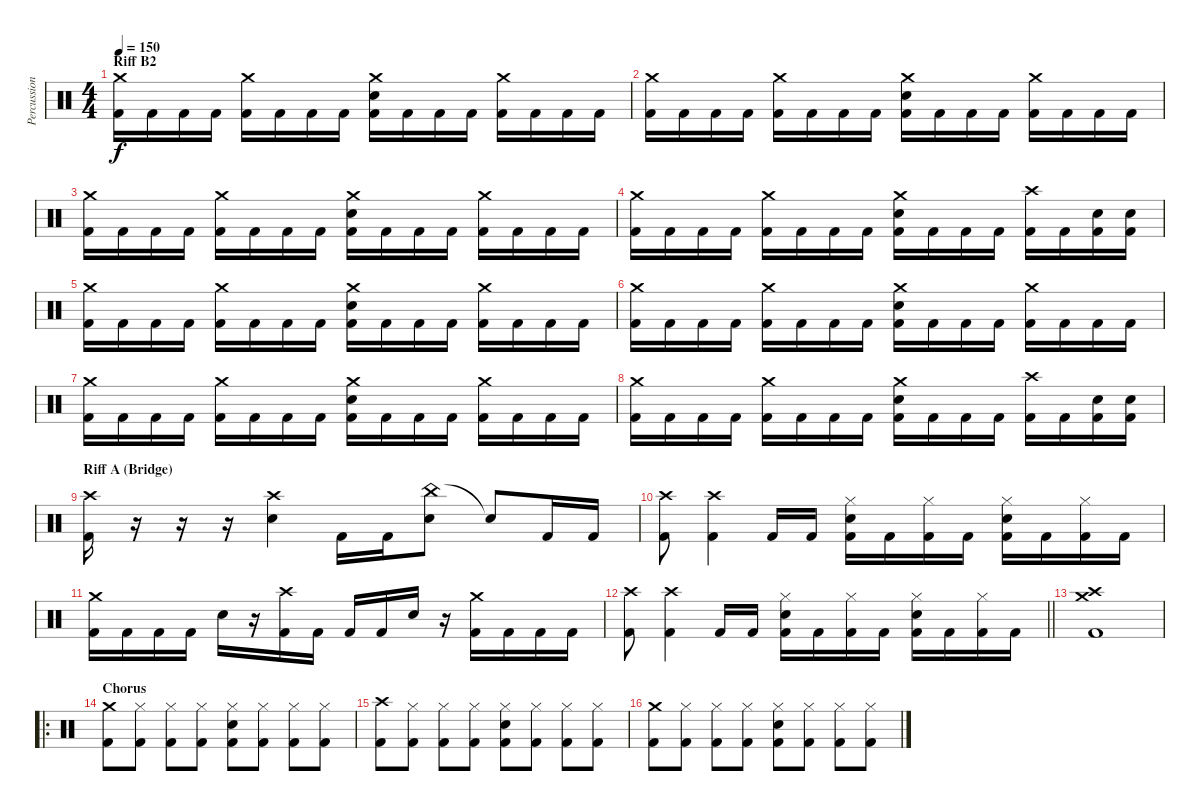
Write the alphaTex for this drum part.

\track ("Percussions" "Percussion") {instrument percussion}
\staff {score}
\articulation defaults
\ts (4 4)
\section ("" "Riff B2")
\tempo 150
\clef neutral
\ks c
("Crash medium (hit)" "Kick (hit) 2").16{dy f} "Kick (hit) 2".16 "Kick (hit) 2".16 "Kick (hit) 2".16 ("Crash medium (hit)" "Kick (hit) 2").16 "Kick (hit) 2".16 "Kick (hit) 2".16 "Kick (hit) 2".16 ("Crash medium (hit)" "Snare (hit) 2" "Kick (hit) 2").16 "Kick (hit) 2".16 "Kick (hit) 2".16 "Kick (hit) 2".16 ("Crash medium (hit)" "Kick (hit) 2").16 "Kick (hit) 2".16 "Kick (hit) 2".16 "Kick (hit) 2".16 |
("Crash medium (hit)" "Kick (hit) 2").16 "Kick (hit) 2".16 "Kick (hit) 2".16 "Kick (hit) 2".16 ("Crash medium (hit)" "Kick (hit) 2").16 "Kick (hit) 2".16 "Kick (hit) 2".16 "Kick (hit) 2".16 ("Crash medium (hit)" "Snare (hit) 2" "Kick (hit) 2").16 "Kick (hit) 2".16 "Kick (hit) 2".16 "Kick (hit) 2".16 ("Crash medium (hit)" "Kick (hit) 2").16 "Kick (hit) 2".16 "Kick (hit) 2".16 "Kick (hit) 2".16 |
("Crash medium (hit)" "Kick (hit) 2").16 "Kick (hit) 2".16 "Kick (hit) 2".16 "Kick (hit) 2".16 ("Crash medium (hit)" "Kick (hit) 2").16 "Kick (hit) 2".16 "Kick (hit) 2".16 "Kick (hit) 2".16 ("Crash medium (hit)" "Snare (hit) 2" "Kick (hit) 2").16 "Kick (hit) 2".16 "Kick (hit) 2".16 "Kick (hit) 2".16 ("Crash medium (hit)" "Kick (hit) 2").16 "Kick (hit) 2".16 "Kick (hit) 2".16 "Kick (hit) 2".16 |
("Crash medium (hit)" "Kick (hit) 2").16 "Kick (hit) 2".16 "Kick (hit) 2".16 "Kick (hit) 2".16 ("Crash medium (hit)" "Kick (hit) 2").16 "Kick (hit) 2".16 "Kick (hit) 2".16 "Kick (hit) 2".16 ("Crash medium (hit)" "Snare (hit) 2" "Kick (hit) 2").16 "Kick (hit) 2".16 "Kick (hit) 2".16 "Kick (hit) 2".16 ("Crash high (hit)" "Kick (hit) 2").16 "Kick (hit) 2".16 ("Snare (hit) 2" "Kick (hit) 2").16 ("Snare (hit) 2" "Kick (hit) 2").16 |
("Crash medium (hit)" "Kick (hit) 2").16 "Kick (hit) 2".16 "Kick (hit) 2".16 "Kick (hit) 2".16 ("Crash medium (hit)" "Kick (hit) 2").16 "Kick (hit) 2".16 "Kick (hit) 2".16 "Kick (hit) 2".16 ("Crash medium (hit)" "Snare (hit) 2" "Kick (hit) 2").16 "Kick (hit) 2".16 "Kick (hit) 2".16 "Kick (hit) 2".16 ("Crash medium (hit)" "Kick (hit) 2").16 "Kick (hit) 2".16 "Kick (hit) 2".16 "Kick (hit) 2".16 |
("Crash medium (hit)" "Kick (hit) 2").16 "Kick (hit) 2".16 "Kick (hit) 2".16 "Kick (hit) 2".16 ("Crash medium (hit)" "Kick (hit) 2").16 "Kick (hit) 2".16 "Kick (hit) 2".16 "Kick (hit) 2".16 ("Crash medium (hit)" "Snare (hit) 2" "Kick (hit) 2").16 "Kick (hit) 2".16 "Kick (hit) 2".16 "Kick (hit) 2".16 ("Crash medium (hit)" "Kick (hit) 2").16 "Kick (hit) 2".16 "Kick (hit) 2".16 "Kick (hit) 2".16 |
("Crash medium (hit)" "Kick (hit) 2").16 "Kick (hit) 2".16 "Kick (hit) 2".16 "Kick (hit) 2".16 ("Crash medium (hit)" "Kick (hit) 2").16 "Kick (hit) 2".16 "Kick (hit) 2".16 "Kick (hit) 2".16 ("Crash medium (hit)" "Snare (hit) 2" "Kick (hit) 2").16 "Kick (hit) 2".16 "Kick (hit) 2".16 "Kick (hit) 2".16 ("Crash medium (hit)" "Kick (hit) 2").16 "Kick (hit) 2".16 "Kick (hit) 2".16 "Kick (hit) 2".16 |
("Crash medium (hit)" "Kick (hit) 2").16 "Kick (hit) 2".16 "Kick (hit) 2".16 "Kick (hit) 2".16 ("Crash medium (hit)" "Kick (hit) 2").16 "Kick (hit) 2".16 "Kick (hit) 2".16 "Kick (hit) 2".16 ("Crash medium (hit)" "Snare (hit) 2" "Kick (hit) 2").16 "Kick (hit) 2".16 "Kick (hit) 2".16 "Kick (hit) 2".16 ("Crash high (hit)" "Kick (hit) 2").16 "Kick (hit) 2".16 ("Snare (hit) 2" "Kick (hit) 2").16 ("Snare (hit) 2" "Kick (hit) 2").16 |
\section ("" "Riff A (Bridge)")
("Crash high (hit)" "Kick (hit) 2").16 r.16 r.16 r.16 ("Crash high (hit)" "Snare (hit) 2").4 "Kick (hit) 2".16 "Kick (hit) 2".16 ("China (hit)" "Snare (hit) 2").8 "Snare (hit)"{t}.8 "Kick (hit) 2".16 "Kick (hit) 2".16 |
("Crash high (hit)" "Kick (hit) 2").8 ("Crash high (hit)" "Kick (hit) 2").4 "Kick (hit) 2".16 "Kick (hit) 2".16 ("Hi-Hat (closed)" "Snare (hit) 2" "Kick (hit) 2").16 "Kick (hit) 2".16 ("Hi-Hat (closed)" "Kick (hit) 2").16 "Kick (hit) 2".16 ("Hi-Hat (closed)" "Snare (hit) 2" "Kick (hit) 2").16 "Kick (hit) 2".16 ("Hi-Hat (closed)" "Kick (hit) 2").16 "Kick (hit) 2".16 |
("Crash medium (hit)" "Kick (hit) 2").16 "Kick (hit) 2".16 "Kick (hit) 2".16 "Kick (hit) 2".16 "Snare (hit) 2".16 r.16 ("Crash high (hit)" "Kick (hit) 2").16 "Kick (hit) 2".16 "Kick (hit) 2".16 "Kick (hit) 2".16 "Snare (hit) 2".16 r.16 ("Crash medium (hit)" "Kick (hit) 2").16 "Kick (hit) 2".16 "Kick (hit) 2".16 "Kick (hit) 2".16 |
\barLineRight lightlight
("Crash high (hit)" "Kick (hit) 2").8 ("Crash high (hit)" "Kick (hit) 2").4 "Kick (hit) 2".16 "Kick (hit) 2".16 ("Hi-Hat (closed)" "Snare (hit) 2" "Kick (hit) 2").16 "Kick (hit) 2".16 ("Hi-Hat (closed)" "Kick (hit) 2").16 "Kick (hit) 2".16 ("Hi-Hat (closed)" "Snare (hit) 2" "Kick (hit) 2").16 "Kick (hit) 2".16 ("Hi-Hat (closed)" "Kick (hit) 2").16 "Kick (hit) 2".16 |
("Crash medium (hit)" "Crash high (hit)" "Kick (hit) 2").1 |
\ro
\section ("" "Chorus")
("Crash medium (hit)" "Kick (hit) 2").8 ("Hi-Hat (closed)" "Kick (hit) 2").8 ("Hi-Hat (closed)" "Kick (hit) 2").8 ("Hi-Hat (closed)" "Kick (hit) 2").8 ("Hi-Hat (closed)" "Snare (hit) 2" "Kick (hit) 2").8 ("Hi-Hat (closed)" "Kick (hit) 2").8 ("Hi-Hat (closed)" "Kick (hit) 2").8 ("Hi-Hat (closed)" "Kick (hit) 2").8 |
("Crash high (hit)" "Kick (hit) 2").8 ("Hi-Hat (closed)" "Kick (hit) 2").8 ("Hi-Hat (closed)" "Kick (hit) 2").8 ("Hi-Hat (closed)" "Kick (hit) 2").8 ("Hi-Hat (closed)" "Snare (hit) 2" "Kick (hit) 2").8 ("Hi-Hat (closed)" "Kick (hit) 2").8 ("Hi-Hat (closed)" "Kick (hit) 2").8 ("Hi-Hat (closed)" "Kick (hit) 2").8 |
("Crash medium (hit)" "Kick (hit) 2").8 ("Hi-Hat (closed)" "Kick (hit) 2").8 ("Hi-Hat (closed)" "Kick (hit) 2").8 ("Hi-Hat (closed)" "Kick (hit) 2").8 ("Hi-Hat (closed)" "Snare (hit) 2" "Kick (hit) 2").8 ("Hi-Hat (closed)" "Kick (hit) 2").8 ("Hi-Hat (closed)" "Kick (hit) 2").8 ("Hi-Hat (closed)" "Kick (hit) 2").8
